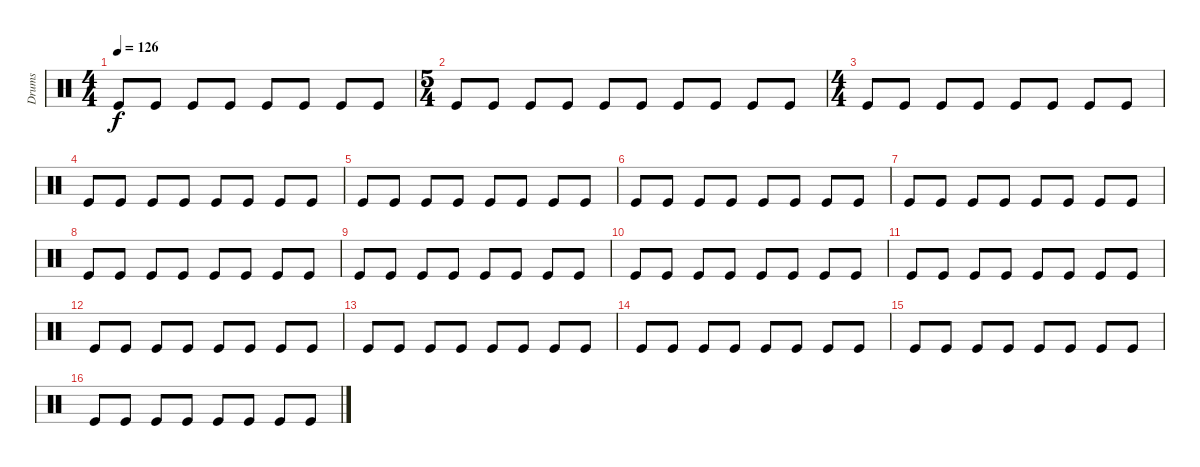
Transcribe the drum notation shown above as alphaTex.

\track ("Drums" "Drums") {instrument percussion}
\staff {score}
\articulation defaults
\ts (4 4)
\tempo 126
\clef neutral
\ks c "Kick (hit)".8{dy f} "Kick (hit)".8 "Kick (hit)".8 "Kick (hit)".8 "Kick (hit)".8 "Kick (hit)".8 "Kick (hit)".8 "Kick (hit)".8
|
\ts (5 4)
"Kick (hit)".8 "Kick (hit)".8 "Kick (hit)".8 "Kick (hit)".8 "Kick (hit)".8 "Kick (hit)".8 "Kick (hit)".8 "Kick (hit)".8 "Kick (hit)".8 "Kick (hit)".8 |
\ts (4 4)
"Kick (hit)".8 "Kick (hit)".8 "Kick (hit)".8 "Kick (hit)".8 "Kick (hit)".8 "Kick (hit)".8 "Kick (hit)".8 "Kick (hit)".8 |
"Kick (hit)".8 "Kick (hit)".8 "Kick (hit)".8 "Kick (hit)".8 "Kick (hit)".8 "Kick (hit)".8 "Kick (hit)".8 "Kick (hit)".8 |
"Kick (hit)".8 "Kick (hit)".8 "Kick (hit)".8 "Kick (hit)".8 "Kick (hit)".8 "Kick (hit)".8 "Kick (hit)".8 "Kick (hit)".8 |
"Kick (hit)".8 "Kick (hit)".8 "Kick (hit)".8 "Kick (hit)".8 "Kick (hit)".8 "Kick (hit)".8 "Kick (hit)".8 "Kick (hit)".8 |
"Kick (hit)".8 "Kick (hit)".8 "Kick (hit)".8 "Kick (hit)".8 "Kick (hit)".8 "Kick (hit)".8 "Kick (hit)".8 "Kick (hit)".8 |
"Kick (hit)".8 "Kick (hit)".8 "Kick (hit)".8 "Kick (hit)".8 "Kick (hit)".8 "Kick (hit)".8 "Kick (hit)".8 "Kick (hit)".8 |
"Kick (hit)".8 "Kick (hit)".8 "Kick (hit)".8 "Kick (hit)".8 "Kick (hit)".8 "Kick (hit)".8 "Kick (hit)".8 "Kick (hit)".8 |
"Kick (hit)".8 "Kick (hit)".8 "Kick (hit)".8 "Kick (hit)".8 "Kick (hit)".8 "Kick (hit)".8 "Kick (hit)".8 "Kick (hit)".8 |
"Kick (hit)".8 "Kick (hit)".8 "Kick (hit)".8 "Kick (hit)".8 "Kick (hit)".8 "Kick (hit)".8 "Kick (hit)".8 "Kick (hit)".8 |
"Kick (hit)".8 "Kick (hit)".8 "Kick (hit)".8 "Kick (hit)".8 "Kick (hit)".8 "Kick (hit)".8 "Kick (hit)".8 "Kick (hit)".8 |
"Kick (hit)".8 "Kick (hit)".8 "Kick (hit)".8 "Kick (hit)".8 "Kick (hit)".8 "Kick (hit)".8 "Kick (hit)".8 "Kick (hit)".8 |
"Kick (hit)".8 "Kick (hit)".8 "Kick (hit)".8 "Kick (hit)".8 "Kick (hit)".8 "Kick (hit)".8 "Kick (hit)".8 "Kick (hit)".8 |
"Kick (hit)".8 "Kick (hit)".8 "Kick (hit)".8 "Kick (hit)".8 "Kick (hit)".8 "Kick (hit)".8 "Kick (hit)".8 "Kick (hit)".8 |
"Kick (hit)".8 "Kick (hit)".8 "Kick (hit)".8 "Kick (hit)".8 "Kick (hit)".8 "Kick (hit)".8 "Kick (hit)".8 "Kick (hit)".8
